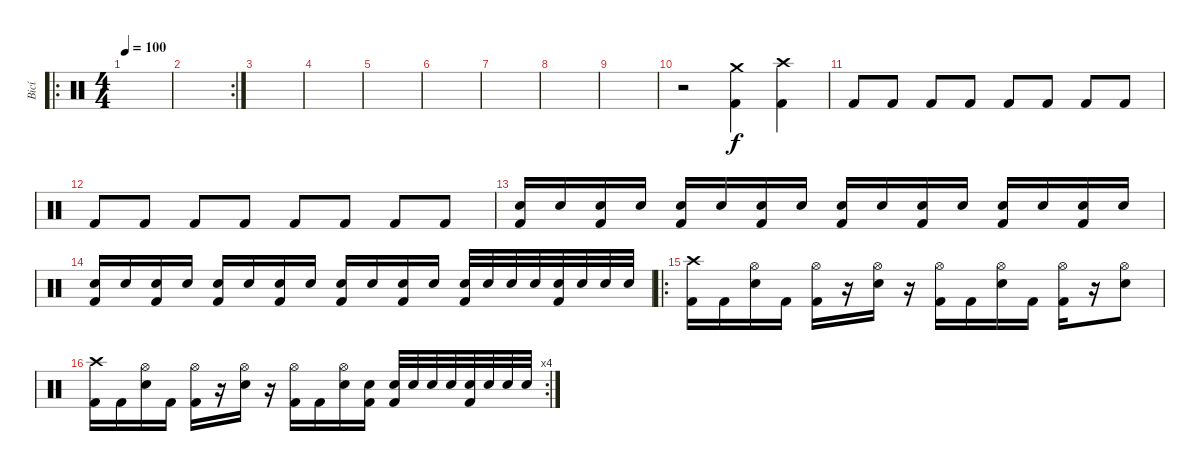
\track ("Bicí" "Bicí") {instrument percussion}
\staff {score}
\articulation defaults
\ro
\ts (4 4)
\tempo 100
\clef neutral
\ks c
|
\rc 2
|
|
|
|
|
|
|
|
r.2 ("Kick (hit) 2" "Crash medium (hit)").4 ("Crash high (hit)" "Kick (hit) 2").4 |
"Kick (hit) 2".8 "Kick (hit) 2".8 "Kick (hit) 2".8 "Kick (hit) 2".8 "Kick (hit) 2".8 "Kick (hit) 2".8 "Kick (hit) 2".8 "Kick (hit) 2".8 |
"Kick (hit) 2".8 "Kick (hit) 2".8 "Kick (hit) 2".8 "Kick (hit) 2".8 "Kick (hit) 2".8 "Kick (hit) 2".8 "Kick (hit) 2".8 "Kick (hit) 2".8 |
("Kick (hit) 2" "Snare (hit) 2").16 "Snare (hit) 2".16 ("Kick (hit) 2" "Snare (hit) 2").16 "Snare (hit) 2".16 ("Kick (hit) 2" "Snare (hit) 2").16 "Snare (hit) 2".16 ("Kick (hit) 2" "Snare (hit) 2").16 "Snare (hit) 2".16 ("Kick (hit) 2" "Snare (hit) 2").16 "Snare (hit) 2".16 ("Kick (hit) 2" "Snare (hit) 2").16 "Snare (hit) 2".16 ("Kick (hit) 2" "Snare (hit) 2").16 "Snare (hit) 2".16 ("Kick (hit) 2" "Snare (hit) 2").16 "Snare (hit) 2".16 |
("Kick (hit) 2" "Snare (hit) 2").16 "Snare (hit) 2".16 ("Kick (hit) 2" "Snare (hit) 2").16 "Snare (hit) 2".16 ("Kick (hit) 2" "Snare (hit) 2").16 "Snare (hit) 2".16 ("Kick (hit) 2" "Snare (hit) 2").16 "Snare (hit) 2".16 ("Kick (hit) 2" "Snare (hit) 2").16 "Snare (hit) 2".16 ("Kick (hit) 2" "Snare (hit) 2").16 "Snare (hit) 2".16 ("Kick (hit) 2" "Snare (hit) 2").32 "Snare (hit) 2".32 "Snare (hit) 2".32 "Snare (hit) 2".32 ("Kick (hit) 2" "Snare (hit) 2").32 "Snare (hit) 2".32 "Snare (hit) 2".32 "Snare (hit) 2".32 |
\ro
("Kick (hit) 2" "Crash high (hit)").16 "Kick (hit) 2".16 ("Hi-Hat (open)" "Snare (hit) 2").16 "Kick (hit) 2".16 ("Kick (hit) 2" "Hi-Hat (open)").16 r.16 ("Hi-Hat (open)" "Snare (hit) 2").16 r.16 ("Kick (hit) 2" "Hi-Hat (open)").16 "Kick (hit) 2".16 ("Hi-Hat (open)" "Snare (hit) 2").16 "Kick (hit) 2".16 ("Kick (hit) 2" "Hi-Hat (open)").16 r.16 ("Hi-Hat (open)" "Snare (hit) 2").8 |
\rc 4
("Kick (hit) 2" "Crash high (hit)").16 "Kick (hit) 2".16 ("Hi-Hat (open)" "Snare (hit) 2").16 "Kick (hit) 2".16 ("Kick (hit) 2" "Hi-Hat (open)").16 r.16 ("Hi-Hat (open)" "Snare (hit) 2").16 r.16 ("Kick (hit) 2" "Hi-Hat (open)").16 "Kick (hit) 2".16 ("Hi-Hat (open)" "Snare (hit) 2").16 ("Kick (hit) 2" "Snare (hit) 2").16 ("Kick (hit) 2" "Snare (hit) 2").32 "Snare (hit) 2".32 "Snare (hit) 2".32 "Snare (hit) 2".32 ("Kick (hit) 2" "Snare (hit) 2").32 "Snare (hit) 2".32 "Snare (hit) 2".32 "Snare (hit) 2".32
